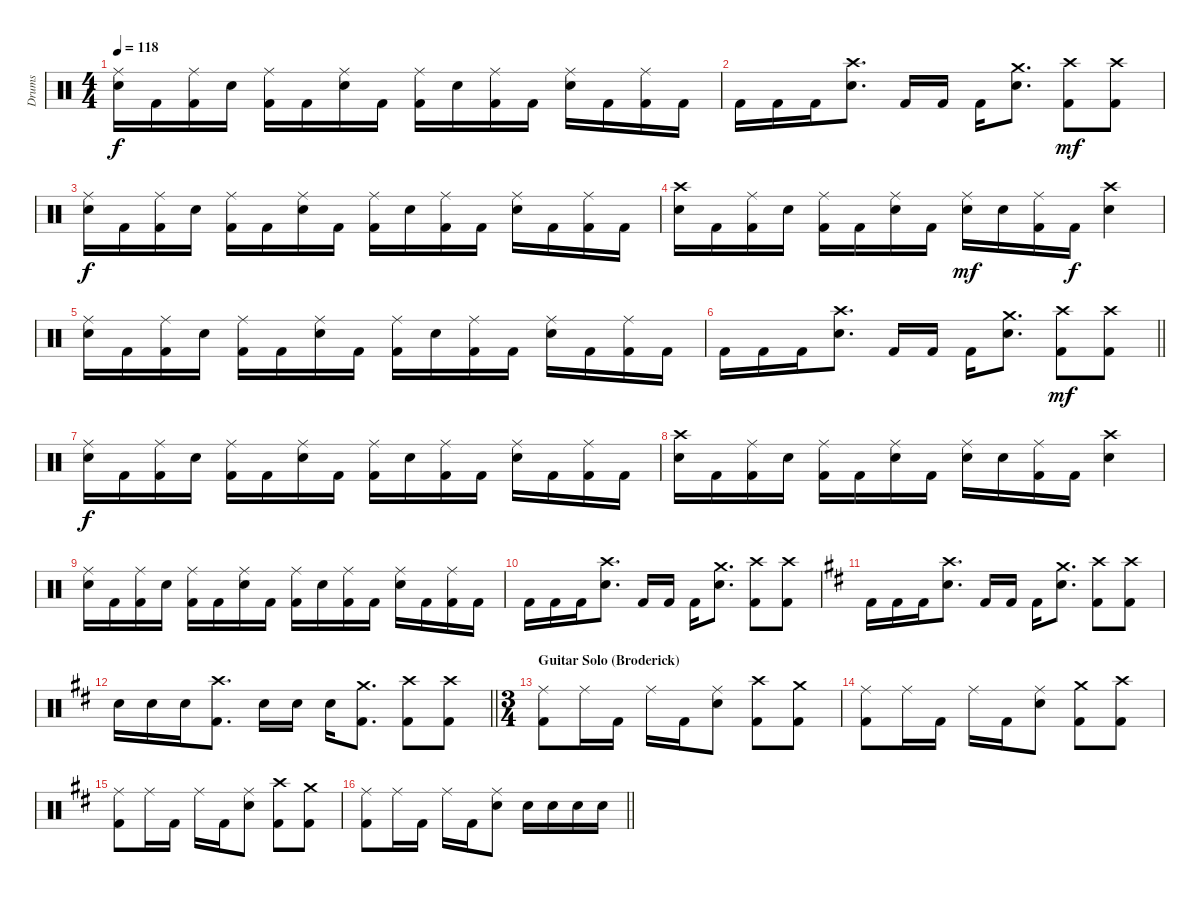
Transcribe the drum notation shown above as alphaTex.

\track ("Drums" "Drums") {instrument percussion}
\staff {score}
\articulation defaults
\ts (4 4)
\tempo 118
\clef neutral
\ks aminor
("Ride (middle)" "Snare (hit) 2").16{dy f} "Kick (hit) 2".16 ("Ride (middle)" "Kick (hit) 2").16 "Snare (hit) 2".16 ("Ride (middle)" "Kick (hit) 2").16 "Kick (hit) 2".16 ("Ride (middle)" "Snare (hit) 2").16 "Kick (hit) 2".16 ("Ride (middle)" "Kick (hit) 2").16 "Snare (hit) 2".16 ("Ride (middle)" "Kick (hit) 2").16 "Kick (hit) 2".16 ("Ride (middle)" "Snare (hit) 2").16 "Kick (hit) 2".16 ("Ride (middle)" "Kick (hit) 2").16 "Kick (hit) 2".16 |
"Kick (hit) 2".16 "Kick (hit) 2".16 "Kick (hit) 2".16 ("Crash high (hit)" "Snare (hit) 2").8{d} "Kick (hit) 2".16 "Kick (hit) 2".16 "Kick (hit) 2".16 ("Crash medium (hit)" "Snare (hit) 2").8{d} ("Crash high (hit)" "Kick (hit) 2").8{dy mf} ("Crash high (hit)" "Kick (hit) 2").8 |
("Ride (middle)" "Snare (hit) 2").16{dy f} "Kick (hit) 2".16 ("Ride (middle)" "Kick (hit) 2").16 "Snare (hit) 2".16 ("Ride (middle)" "Kick (hit) 2").16 "Kick (hit) 2".16 ("Ride (middle)" "Snare (hit) 2").16 "Kick (hit) 2".16 ("Ride (middle)" "Kick (hit) 2").16 "Snare (hit) 2".16 ("Ride (middle)" "Kick (hit) 2").16 "Kick (hit) 2".16 ("Ride (middle)" "Snare (hit) 2").16 "Kick (hit) 2".16 ("Ride (middle)" "Kick (hit) 2").16 "Kick (hit) 2".16 |
("Crash high (hit)" "Snare (hit) 2").16 "Kick (hit) 2".16 ("Ride (middle)" "Kick (hit) 2").16 "Snare (hit) 2".16 ("Ride (middle)" "Kick (hit) 2").16 "Kick (hit) 2".16 ("Ride (middle)" "Snare (hit) 2").16 "Kick (hit) 2".16 ("Ride (middle)" "Snare (hit) 2").16{dy mf} "Snare (hit) 2".16 ("Ride (middle)" "Kick (hit) 2").16 "Kick (hit) 2".16{dy f} ("Crash high (hit)" "Snare (hit) 2").4 |
("Ride (middle)" "Snare (hit) 2").16 "Kick (hit) 2".16 ("Ride (middle)" "Kick (hit) 2").16 "Snare (hit) 2".16 ("Ride (middle)" "Kick (hit) 2").16 "Kick (hit) 2".16 ("Ride (middle)" "Snare (hit) 2").16 "Kick (hit) 2".16 ("Ride (middle)" "Kick (hit) 2").16 "Snare (hit) 2".16 ("Ride (middle)" "Kick (hit) 2").16 "Kick (hit) 2".16 ("Ride (middle)" "Snare (hit) 2").16 "Kick (hit) 2".16 ("Ride (middle)" "Kick (hit) 2").16 "Kick (hit) 2".16 |
\barLineRight lightlight "Kick (hit) 2".16 "Kick (hit) 2".16 "Kick (hit) 2".16
("Crash high (hit)" "Snare (hit) 2").8{d} "Kick (hit) 2".16 "Kick (hit) 2".16 "Kick (hit) 2".16 ("Crash medium (hit)" "Snare (hit) 2").8{d} ("Crash high (hit)" "Kick (hit) 2").8{dy mf} ("Crash high (hit)" "Kick (hit) 2").8 |
("Ride (middle)" "Snare (hit) 2").16{dy f} "Kick (hit) 2".16 ("Ride (middle)" "Kick (hit) 2").16 "Snare (hit) 2".16 ("Ride (middle)" "Kick (hit) 2").16 "Kick (hit) 2".16 ("Ride (middle)" "Snare (hit) 2").16 "Kick (hit) 2".16 ("Ride (middle)" "Kick (hit) 2").16 "Snare (hit) 2".16 ("Ride (middle)" "Kick (hit) 2").16 "Kick (hit) 2".16 ("Ride (middle)" "Snare (hit) 2").16 "Kick (hit) 2".16 ("Ride (middle)" "Kick (hit) 2").16 "Kick (hit) 2".16 |
("Crash high (hit)" "Snare (hit) 2").16 "Kick (hit) 2".16 ("Ride (middle)" "Kick (hit) 2").16 "Snare (hit) 2".16 ("Ride (middle)" "Kick (hit) 2").16 "Kick (hit) 2".16 ("Ride (middle)" "Snare (hit) 2").16 "Kick (hit) 2".16 ("Ride (middle)" "Snare (hit) 2").16 "Snare (hit) 2".16 ("Ride (middle)" "Kick (hit) 2").16 "Kick (hit) 2".16 ("Crash high (hit)" "Snare (hit) 2").4 |
("Ride (middle)" "Snare (hit) 2").16 "Kick (hit) 2".16 ("Ride (middle)" "Kick (hit) 2").16 "Snare (hit) 2".16 ("Ride (middle)" "Kick (hit) 2").16 "Kick (hit) 2".16 ("Ride (middle)" "Snare (hit) 2").16 "Kick (hit) 2".16 ("Ride (middle)" "Kick (hit) 2").16 "Snare (hit) 2".16 ("Ride (middle)" "Kick (hit) 2").16 "Kick (hit) 2".16 ("Ride (middle)" "Snare (hit) 2").16 "Kick (hit) 2".16 ("Ride (middle)" "Kick (hit) 2").16 "Kick (hit) 2".16 |
"Kick (hit) 2".16 "Kick (hit) 2".16 "Kick (hit) 2".16 ("Crash high (hit)" "Snare (hit) 2").8{d} "Kick (hit) 2".16 "Kick (hit) 2".16 "Kick (hit) 2".16 ("Crash medium (hit)" "Snare (hit) 2").8{d} ("Crash high (hit)" "Kick (hit) 2").8 ("Crash high (hit)" "Kick (hit) 2").8 |
\ks bminor "Kick (hit) 2".16 "Kick (hit) 2".16 "Kick (hit) 2".16
("Crash high (hit)" "Snare (hit) 2").8{d} "Kick (hit) 2".16 "Kick (hit) 2".16 "Kick (hit) 2".16 ("Crash medium (hit)" "Snare (hit) 2").8{d} ("Crash high (hit)" "Kick (hit) 2").8 ("Crash high (hit)" "Kick (hit) 2").8 |
\barLineRight lightlight "Snare (hit) 2".16 "Snare (hit) 2".16 "Snare (hit) 2".16
("Crash high (hit)" "Kick (hit) 2").8{d} "Snare (hit) 2".16 "Snare (hit) 2".16 "Snare (hit) 2".16 ("Crash medium (hit)" "Kick (hit) 2").8{d} ("Crash high (hit)" "Kick (hit) 2").8 ("Crash high (hit)" "Kick (hit) 2").8 |
\ts (3 4)
\section ("" "Guitar Solo (Broderick)")
("Ride (middle)" "Kick (hit) 2").8 "Ride (middle)".16 "Kick (hit) 2".16 "Ride (middle)".16 "Kick (hit) 2".16 ("Ride (middle)" "Snare (hit) 2").8 ("Crash high (hit)" "Kick (hit) 2").8 ("Crash medium (hit)" "Kick (hit) 2").8 |
("Ride (middle)" "Kick (hit) 2").8 "Ride (middle)".16 "Kick (hit) 2".16 "Ride (middle)".16 "Kick (hit) 2".16 ("Ride (middle)" "Snare (hit) 2").8 ("Crash medium (hit)" "Kick (hit) 2").8 ("Crash high (hit)" "Kick (hit) 2").8 |
("Ride (middle)" "Kick (hit) 2").8 "Ride (middle)".16 "Kick (hit) 2".16 "Ride (middle)".16 "Kick (hit) 2".16 ("Ride (middle)" "Snare (hit) 2").8 ("Crash high (hit)" "Kick (hit) 2").8 ("Crash medium (hit)" "Kick (hit) 2").8 |
\barLineRight lightlight
("Ride (middle)" "Kick (hit) 2").8 "Ride (middle)".16 "Kick (hit) 2".16 "Ride (middle)".16 "Kick (hit) 2".16 ("Ride (middle)" "Snare (hit) 2").8 "Snare (hit) 2".16 "Snare (hit) 2".16 "Snare (hit) 2".16 "Snare (hit) 2".16
